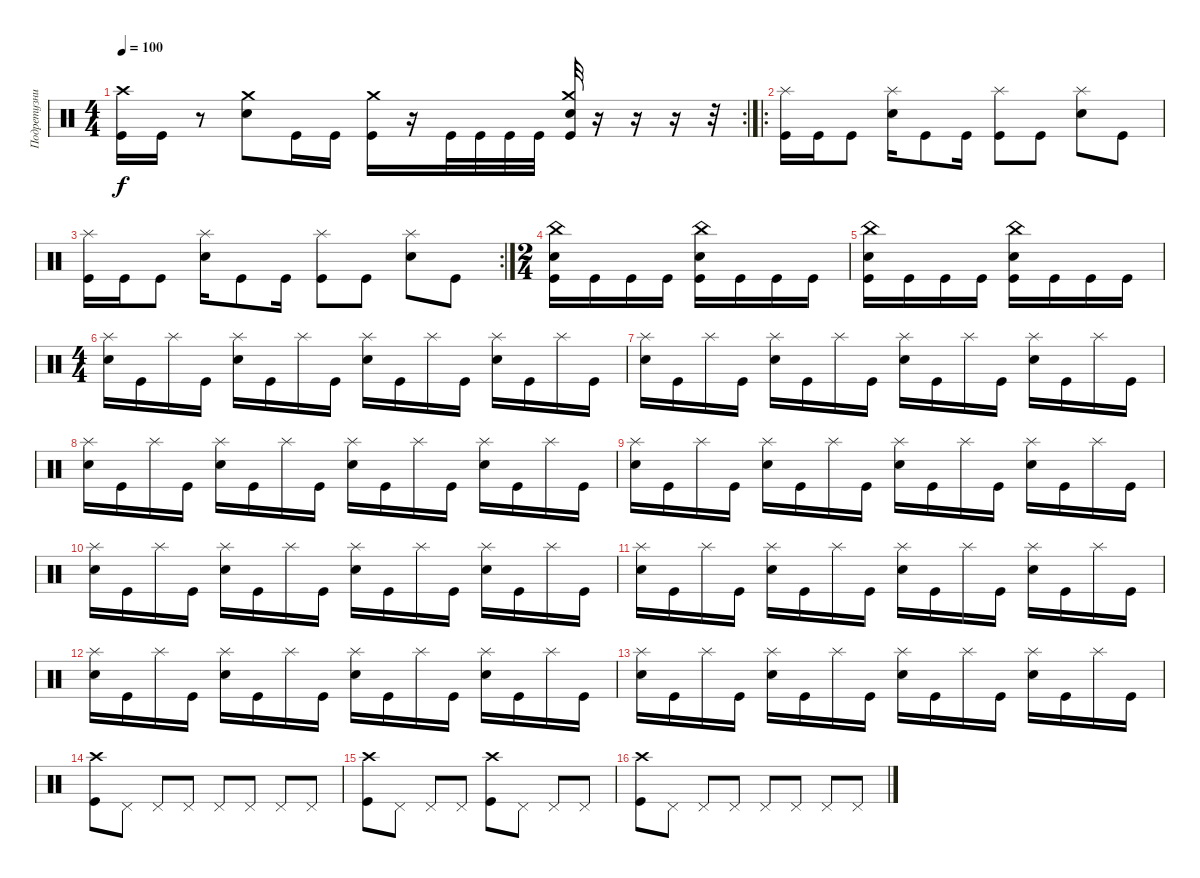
\track ("Подретузник" "Подретузни") {instrument percussion}
\staff {score}
\articulation defaults
\rc 2
\ts (4 4)
\tempo 100
\clef neutral
\ks c
("Crash high (hit)" "Kick (hit)").16{dy f} "Kick (hit)".16 r.8 ("Crash medium (hit)" "Electric Snare (hit)").8 "Kick (hit)".16 "Kick (hit)".16 ("Crash medium (hit)" "Kick (hit)").16 r.16 "Kick (hit)".32 "Kick (hit)".32 "Kick (hit)".32 "Kick (hit)".32 ("Crash medium (hit)" "Electric Snare (hit)" "Kick (hit)").32 r.16 r.16 r.16 r.32 |
\ro
("Splash (hit)" "Kick (hit)").16 "Kick (hit)".16 "Kick (hit)".8 ("Splash (hit)" "Electric Snare (hit)").16 "Kick (hit)".8 "Kick (hit)".16 ("Splash (hit)" "Kick (hit)").8 "Kick (hit)".8 ("Splash (hit)" "Electric Snare (hit)").8 "Kick (hit)".8 |
\rc 2
("Splash (hit)" "Kick (hit)").16 "Kick (hit)".16 "Kick (hit)".8 ("Splash (hit)" "Electric Snare (hit)").16 "Kick (hit)".8 "Kick (hit)".16 ("Splash (hit)" "Kick (hit)").8 "Kick (hit)".8 ("Splash (hit)" "Electric Snare (hit)").8 "Kick (hit)".8 |
\ts (2 4)
("China (hit)" "Electric Snare (hit)" "Kick (hit)").16 "Kick (hit)".16 "Kick (hit)".16 "Kick (hit)".16 ("China (hit)" "Electric Snare (hit)" "Kick (hit)").16 "Kick (hit)".16 "Kick (hit)".16 "Kick (hit)".16 |
("China (hit)" "Electric Snare (hit)" "Kick (hit)").16 "Kick (hit)".16 "Kick (hit)".16 "Kick (hit)".16 ("China (hit)" "Electric Snare (hit)" "Kick (hit)").16 "Kick (hit)".16 "Kick (hit)".16 "Kick (hit)".16 |
\ts (4 4)
("Splash (hit)" "Electric Snare (hit)").16 "Kick (hit)".16 "Splash (hit)".16 "Kick (hit)".16 ("Splash (hit)" "Electric Snare (hit)").16 "Kick (hit)".16 "Splash (hit)".16 "Kick (hit)".16 ("Splash (hit)" "Electric Snare (hit)").16 "Kick (hit)".16 "Splash (hit)".16 "Kick (hit)".16 ("Splash (hit)" "Electric Snare (hit)").16 "Kick (hit)".16 "Splash (hit)".16 "Kick (hit)".16 |
("Splash (hit)" "Electric Snare (hit)").16 "Kick (hit)".16 "Splash (hit)".16 "Kick (hit)".16 ("Splash (hit)" "Electric Snare (hit)").16 "Kick (hit)".16 "Splash (hit)".16 "Kick (hit)".16 ("Splash (hit)" "Electric Snare (hit)").16 "Kick (hit)".16 "Splash (hit)".16 "Kick (hit)".16 ("Splash (hit)" "Electric Snare (hit)").16 "Kick (hit)".16 "Splash (hit)".16 "Kick (hit)".16 |
("Splash (hit)" "Electric Snare (hit)").16 "Kick (hit)".16 "Splash (hit)".16 "Kick (hit)".16 ("Splash (hit)" "Electric Snare (hit)").16 "Kick (hit)".16 "Splash (hit)".16 "Kick (hit)".16 ("Splash (hit)" "Electric Snare (hit)").16 "Kick (hit)".16 "Splash (hit)".16 "Kick (hit)".16 ("Splash (hit)" "Electric Snare (hit)").16 "Kick (hit)".16 "Splash (hit)".16 "Kick (hit)".16 |
("Splash (hit)" "Electric Snare (hit)").16 "Kick (hit)".16 "Splash (hit)".16 "Kick (hit)".16 ("Splash (hit)" "Electric Snare (hit)").16 "Kick (hit)".16 "Splash (hit)".16 "Kick (hit)".16 ("Splash (hit)" "Electric Snare (hit)").16 "Kick (hit)".16 "Splash (hit)".16 "Kick (hit)".16 ("Splash (hit)" "Electric Snare (hit)").16 "Kick (hit)".16 "Splash (hit)".16 "Kick (hit)".16 |
("Splash (hit)" "Electric Snare (hit)").16 "Kick (hit)".16 "Splash (hit)".16 "Kick (hit)".16 ("Splash (hit)" "Electric Snare (hit)").16 "Kick (hit)".16 "Splash (hit)".16 "Kick (hit)".16 ("Splash (hit)" "Electric Snare (hit)").16 "Kick (hit)".16 "Splash (hit)".16 "Kick (hit)".16 ("Splash (hit)" "Electric Snare (hit)").16 "Kick (hit)".16 "Splash (hit)".16 "Kick (hit)".16 |
("Splash (hit)" "Electric Snare (hit)").16 "Kick (hit)".16 "Splash (hit)".16 "Kick (hit)".16 ("Splash (hit)" "Electric Snare (hit)").16 "Kick (hit)".16 "Splash (hit)".16 "Kick (hit)".16 ("Splash (hit)" "Electric Snare (hit)").16 "Kick (hit)".16 "Splash (hit)".16 "Kick (hit)".16 ("Splash (hit)" "Electric Snare (hit)").16 "Kick (hit)".16 "Splash (hit)".16 "Kick (hit)".16 |
("Splash (hit)" "Electric Snare (hit)").16 "Kick (hit)".16 "Splash (hit)".16 "Kick (hit)".16 ("Splash (hit)" "Electric Snare (hit)").16 "Kick (hit)".16 "Splash (hit)".16 "Kick (hit)".16 ("Splash (hit)" "Electric Snare (hit)").16 "Kick (hit)".16 "Splash (hit)".16 "Kick (hit)".16 ("Splash (hit)" "Electric Snare (hit)").16 "Kick (hit)".16 "Splash (hit)".16 "Kick (hit)".16 |
("Splash (hit)" "Electric Snare (hit)").16 "Kick (hit)".16 "Splash (hit)".16 "Kick (hit)".16 ("Splash (hit)" "Electric Snare (hit)").16 "Kick (hit)".16 "Splash (hit)".16 "Kick (hit)".16 ("Splash (hit)" "Electric Snare (hit)").16 "Kick (hit)".16 "Splash (hit)".16 "Kick (hit)".16 ("Splash (hit)" "Electric Snare (hit)").16 "Kick (hit)".16 "Splash (hit)".16 "Kick (hit)".16 |
("Crash high (hit)" "Kick (hit)").8 "Pedal Hi-Hat (hit)".8 "Pedal Hi-Hat (hit)".8 "Pedal Hi-Hat (hit)".8 "Pedal Hi-Hat (hit)".8 "Pedal Hi-Hat (hit)".8 "Pedal Hi-Hat (hit)".8 "Pedal Hi-Hat (hit)".8 |
("Crash high (hit)" "Kick (hit)").8 "Pedal Hi-Hat (hit)".8 "Pedal Hi-Hat (hit)".8 "Pedal Hi-Hat (hit)".8 ("Crash high (hit)" "Kick (hit)").8 "Pedal Hi-Hat (hit)".8 "Pedal Hi-Hat (hit)".8 "Pedal Hi-Hat (hit)".8 |
("Crash high (hit)" "Kick (hit)").8 "Pedal Hi-Hat (hit)".8 "Pedal Hi-Hat (hit)".8 "Pedal Hi-Hat (hit)".8 "Pedal Hi-Hat (hit)".8 "Pedal Hi-Hat (hit)".8 "Pedal Hi-Hat (hit)".8 "Pedal Hi-Hat (hit)".8
